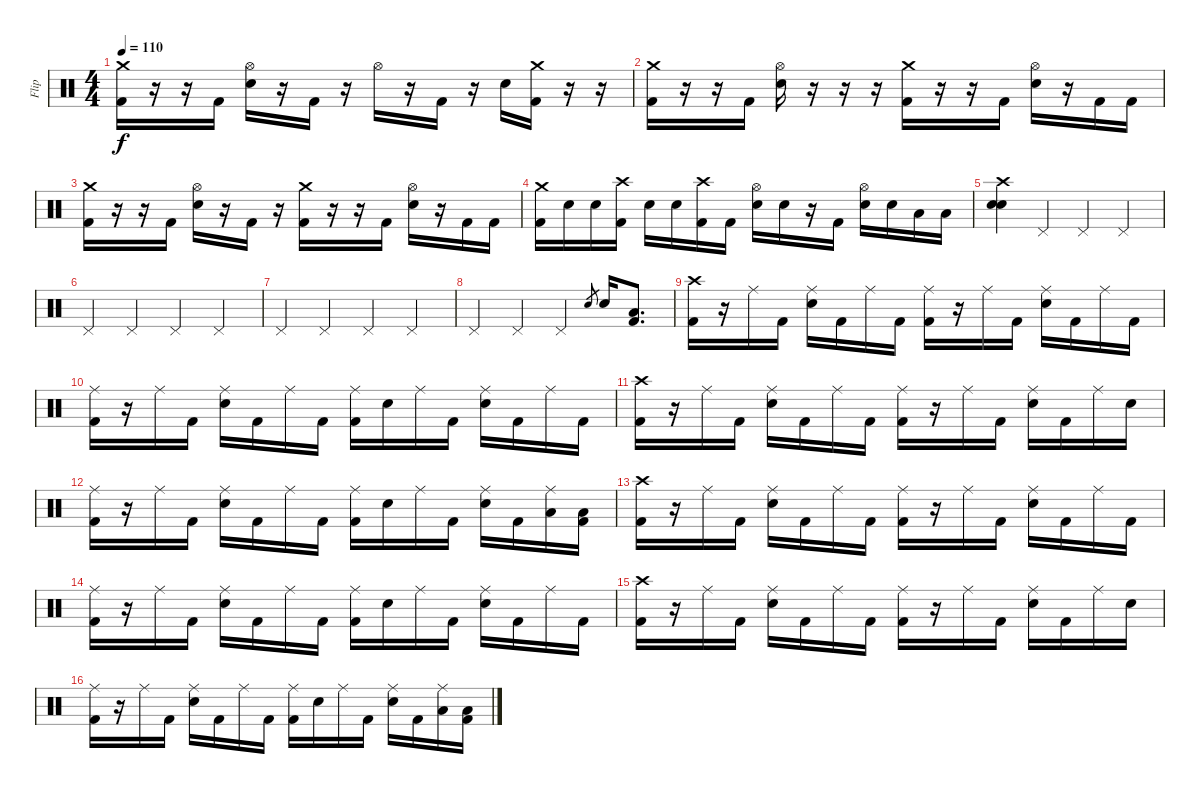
\track ("Flip" "Flip") {instrument percussion}
\staff {score}
\articulation defaults
\ts (4 4)
\tempo 110
\clef neutral
\ks c
("Crash medium (hit)" "Kick (hit) 2").16{dy f} r.16 r.16 "Kick (hit) 2".16 ("Hi-Hat (open)" "Snare (hit) 2").16 r.16 "Kick (hit) 2".16 r.16 "Hi-Hat (open)".16 r.16 "Kick (hit) 2".16 r.16 "Snare (hit) 2".16 ("Crash medium (hit)" "Kick (hit) 2").16 r.16 r.16 |
("Crash medium (hit)" "Kick (hit) 2").16 r.16 r.16 "Kick (hit) 2".16 ("Hi-Hat (open)" "Snare (hit) 2").16 r.16 r.16 r.16 ("Crash medium (hit)" "Kick (hit) 2").16 r.16 r.16 "Kick (hit) 2".16 ("Hi-Hat (open)" "Snare (hit) 2").16 r.16 "Kick (hit) 2".16 "Kick (hit) 2".16 |
("Crash medium (hit)" "Kick (hit) 2").16 r.16 r.16 "Kick (hit) 2".16 ("Hi-Hat (open)" "Snare (hit) 2").16 r.16 "Kick (hit) 2".16 r.16 ("Crash medium (hit)" "Kick (hit) 2").16 r.16 r.16 "Kick (hit) 2".16 ("Hi-Hat (open)" "Snare (hit) 2").16 r.16 "Kick (hit) 2".16 "Kick (hit) 2".16 |
("Crash medium (hit)" "Kick (hit) 2").16 "Snare (hit) 2".16 "Snare (hit) 2".16 ("Crash high (hit)" "Kick (hit) 2").16 "Snare (hit) 2".16 "Snare (hit) 2".16 ("Crash high (hit)" "Kick (hit) 2").16 "Kick (hit) 2".16 ("Hi-Hat (open)" "Snare (hit) 2").16 "Snare (hit) 2".16 r.16 "Kick (hit) 2".16 ("Hi-Hat (open)" "Snare (hit) 2").16 "Snare (hit) 2".16 "Low Tom (hit)".16 "Low Tom (hit)".16 |
("Crash high (hit)" "Snare (hit) 2" "Snare (hit) 2").4 "Pedal Hi-Hat (hit)".4 "Pedal Hi-Hat (hit)".4 "Pedal Hi-Hat (hit)".4 |
"Pedal Hi-Hat (hit)".4 "Pedal Hi-Hat (hit)".4 "Pedal Hi-Hat (hit)".4 "Pedal Hi-Hat (hit)".4 |
"Pedal Hi-Hat (hit)".4 "Pedal Hi-Hat (hit)".4 "Pedal Hi-Hat (hit)".4 "Pedal Hi-Hat (hit)".4 |
"Pedal Hi-Hat (hit)".4 "Pedal Hi-Hat (hit)".4 "Pedal Hi-Hat (hit)".4 "Snare (hit) 2".8{gr} "Snare (hit) 2".16 ("Low Floor Tom (hit)" "Kick (hit) 2").8{d} |
("Crash high (hit)" "Kick (hit) 2").16 r.16 "Ride (middle)".16 "Kick (hit) 2".16 ("Ride (middle)" "Snare (hit) 2").16 "Kick (hit) 2".16 "Ride (middle)".16 "Kick (hit) 2".16 ("Ride (middle)" "Kick (hit) 2").16 r.16 "Ride (middle)".16 "Kick (hit) 2".16 ("Ride (middle)" "Snare (hit) 2").16 "Kick (hit) 2".16 "Ride (middle)".16 "Kick (hit) 2".16 |
("Ride (middle)" "Kick (hit) 2").16 r.16 "Ride (middle)".16 "Kick (hit) 2".16 ("Ride (middle)" "Snare (hit) 2").16 "Kick (hit) 2".16 "Ride (middle)".16 "Kick (hit) 2".16 ("Ride (middle)" "Kick (hit) 2").16 "Snare (hit) 2".16 "Ride (middle)".16 "Kick (hit) 2".16 ("Ride (middle)" "Snare (hit) 2").16 "Kick (hit) 2".16 "Ride (middle)".16 "Kick (hit) 2".16 |
("Crash high (hit)" "Kick (hit) 2").16 r.16 "Ride (middle)".16 "Kick (hit) 2".16 ("Ride (middle)" "Snare (hit) 2").16 "Kick (hit) 2".16 "Ride (middle)".16 "Kick (hit) 2".16 ("Ride (middle)" "Kick (hit) 2").16 r.16 "Ride (middle)".16 "Kick (hit) 2".16 ("Ride (middle)" "Snare (hit) 2").16 "Kick (hit) 2".16 "Ride (middle)".16 "Snare (hit) 2".16 |
("Ride (middle)" "Kick (hit) 2").16 r.16 "Ride (middle)".16 "Kick (hit) 2".16 ("Ride (middle)" "Snare (hit) 2").16 "Kick (hit) 2".16 "Ride (middle)".16 "Kick (hit) 2".16 ("Ride (middle)" "Kick (hit) 2").16 "Snare (hit) 2".16 "Ride (middle)".16 "Kick (hit) 2".16 ("Ride (middle)" "Snare (hit) 2").16 "Kick (hit) 2".16 ("Ride (middle)" "Low Tom (hit)").16 ("Low Tom (hit)" "Kick (hit) 2").16 |
("Crash high (hit)" "Kick (hit) 2").16 r.16 "Ride (middle)".16 "Kick (hit) 2".16 ("Ride (middle)" "Snare (hit) 2").16 "Kick (hit) 2".16 "Ride (middle)".16 "Kick (hit) 2".16 ("Ride (middle)" "Kick (hit) 2").16 r.16 "Ride (middle)".16 "Kick (hit) 2".16 ("Ride (middle)" "Snare (hit) 2").16 "Kick (hit) 2".16 "Ride (middle)".16 "Kick (hit) 2".16 |
("Ride (middle)" "Kick (hit) 2").16 r.16 "Ride (middle)".16 "Kick (hit) 2".16 ("Ride (middle)" "Snare (hit) 2").16 "Kick (hit) 2".16 "Ride (middle)".16 "Kick (hit) 2".16 ("Ride (middle)" "Kick (hit) 2").16 "Snare (hit) 2".16 "Ride (middle)".16 "Kick (hit) 2".16 ("Ride (middle)" "Snare (hit) 2").16 "Kick (hit) 2".16 "Ride (middle)".16 "Kick (hit) 2".16 |
("Crash high (hit)" "Kick (hit) 2").16 r.16 "Ride (middle)".16 "Kick (hit) 2".16 ("Ride (middle)" "Snare (hit) 2").16 "Kick (hit) 2".16 "Ride (middle)".16 "Kick (hit) 2".16 ("Ride (middle)" "Kick (hit) 2").16 r.16 "Ride (middle)".16 "Kick (hit) 2".16 ("Ride (middle)" "Snare (hit) 2").16 "Kick (hit) 2".16 "Ride (middle)".16 "Snare (hit) 2".16 |
("Ride (middle)" "Kick (hit) 2").16 r.16 "Ride (middle)".16 "Kick (hit) 2".16 ("Ride (middle)" "Snare (hit) 2").16 "Kick (hit) 2".16 "Ride (middle)".16 "Kick (hit) 2".16 ("Ride (middle)" "Kick (hit) 2").16 "Snare (hit) 2".16 "Ride (middle)".16 "Kick (hit) 2".16 ("Ride (middle)" "Snare (hit) 2").16 "Kick (hit) 2".16 ("Ride (middle)" "Low Tom (hit)").16 ("Low Tom (hit)" "Kick (hit) 2").16
